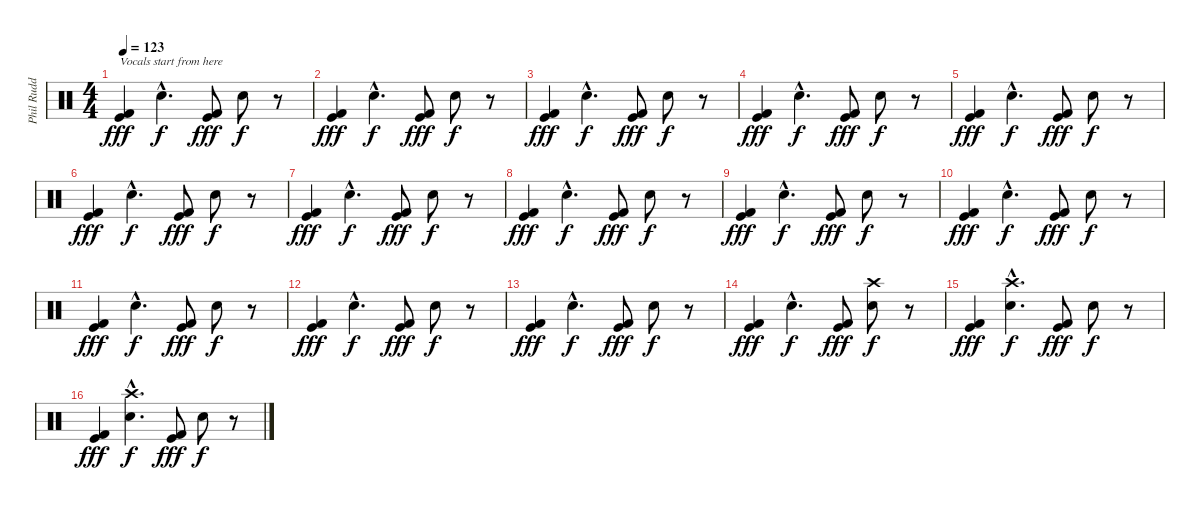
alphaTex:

\track ("Phil Rudd (Drums)" "Phil Rudd ") {instrument percussion}
\staff {score}
\articulation defaults
\ts (4 4)
\tempo 123
\clef neutral
\ks c
("Kick (hit) 2" "Kick (hit)").4{txt "Vocals start from here" dy fff} "Snare (hit) 2"{hac}.4{d dy f} ("Kick (hit) 2" "Kick (hit)").8{dy fff} "Snare (hit) 2".8{dy f} r.8 |
("Kick (hit) 2" "Kick (hit)").4{dy fff} "Snare (hit) 2"{hac}.4{d dy f} ("Kick (hit) 2" "Kick (hit)").8{dy fff} "Snare (hit) 2".8{dy f} r.8 |
("Kick (hit) 2" "Kick (hit)").4{dy fff} "Snare (hit) 2"{hac}.4{d dy f} ("Kick (hit) 2" "Kick (hit)").8{dy fff} "Snare (hit) 2".8{dy f} r.8 |
("Kick (hit) 2" "Kick (hit)").4{dy fff} "Snare (hit) 2"{hac}.4{d dy f} ("Kick (hit) 2" "Kick (hit)").8{dy fff} "Snare (hit) 2".8{dy f} r.8 |
("Kick (hit) 2" "Kick (hit)").4{dy fff} "Snare (hit) 2"{hac}.4{d dy f} ("Kick (hit) 2" "Kick (hit)").8{dy fff} "Snare (hit) 2".8{dy f} r.8 |
("Kick (hit) 2" "Kick (hit)").4{dy fff} "Snare (hit) 2"{hac}.4{d dy f} ("Kick (hit) 2" "Kick (hit)").8{dy fff} "Snare (hit) 2".8{dy f} r.8 |
("Kick (hit) 2" "Kick (hit)").4{dy fff} "Snare (hit) 2"{hac}.4{d dy f} ("Kick (hit) 2" "Kick (hit)").8{dy fff} "Snare (hit) 2".8{dy f} r.8 |
("Kick (hit) 2" "Kick (hit)").4{dy fff} "Snare (hit) 2"{hac}.4{d dy f} ("Kick (hit) 2" "Kick (hit)").8{dy fff} "Snare (hit) 2".8{dy f} r.8 |
("Kick (hit) 2" "Kick (hit)").4{dy fff} "Snare (hit) 2"{hac}.4{d dy f} ("Kick (hit) 2" "Kick (hit)").8{dy fff} "Snare (hit) 2".8{dy f} r.8 |
("Kick (hit) 2" "Kick (hit)").4{dy fff} "Snare (hit) 2"{hac}.4{d dy f} ("Kick (hit) 2" "Kick (hit)").8{dy fff} "Snare (hit) 2".8{dy f} r.8 |
("Kick (hit) 2" "Kick (hit)").4{dy fff} "Snare (hit) 2"{hac}.4{d dy f} ("Kick (hit) 2" "Kick (hit)").8{dy fff} "Snare (hit) 2".8{dy f} r.8 |
("Kick (hit) 2" "Kick (hit)").4{dy fff} "Snare (hit) 2"{hac}.4{d dy f} ("Kick (hit) 2" "Kick (hit)").8{dy fff} "Snare (hit) 2".8{dy f} r.8 |
("Kick (hit) 2" "Kick (hit)").4{dy fff} "Snare (hit) 2"{hac}.4{d dy f} ("Kick (hit) 2" "Kick (hit)").8{dy fff} "Snare (hit) 2".8{dy f} r.8 |
("Kick (hit) 2" "Kick (hit)").4{dy fff} "Snare (hit) 2"{hac}.4{d dy f} ("Kick (hit) 2" "Kick (hit)").8{dy fff} ("Snare (hit) 2" "Crash high (hit)").8{dy f} r.8 |
("Kick (hit) 2" "Kick (hit)").4{dy fff} ("Snare (hit) 2"{hac} "Crash high (hit)"{hac}).4{d dy f} ("Kick (hit) 2" "Kick (hit)").8{dy fff} "Snare (hit) 2".8{dy f} r.8 |
("Kick (hit) 2" "Kick (hit)").4{dy fff} ("Snare (hit) 2"{hac} "Crash high (hit)"{hac}).4{d dy f} ("Kick (hit) 2" "Kick (hit)").8{dy fff} "Snare (hit) 2".8{dy f} r.8
